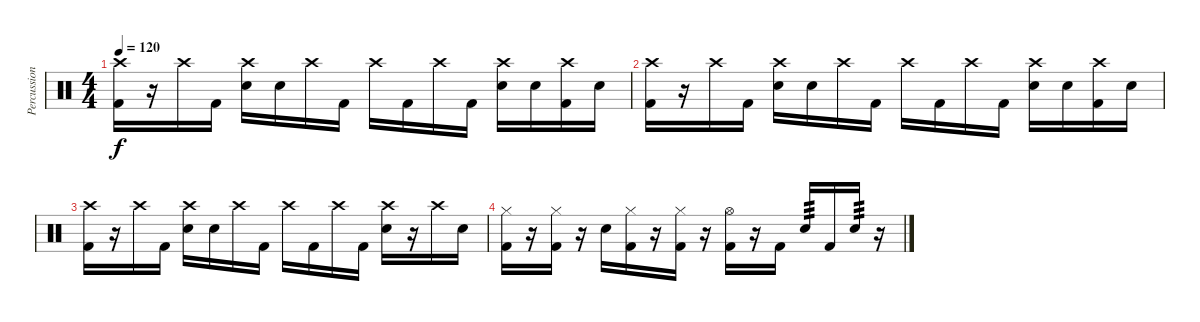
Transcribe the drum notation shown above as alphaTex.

\track ("Percussion" "Percussion") {instrument percussion}
\staff {score}
\articulation defaults
\ts (4 4)
\tempo 120
\clef neutral
\ks c
("Crash high (hit)" "Kick (hit) 2").16{dy f} r.16 "Crash high (hit)".16 "Kick (hit) 2".16 ("Crash high (hit)" "Electric Snare (hit)").16 "Electric Snare (hit)".16 "Crash high (hit)".16 "Kick (hit) 2".16 "Crash high (hit)".16 "Kick (hit) 2".16 "Crash high (hit)".16 "Kick (hit) 2".16 ("Crash high (hit)" "Electric Snare (hit)").16 "Electric Snare (hit)".16 ("Crash high (hit)" "Kick (hit) 2").16 "Electric Snare (hit)".16 |
("Crash high (hit)" "Kick (hit) 2").16 r.16 "Crash high (hit)".16 "Kick (hit) 2".16 ("Crash high (hit)" "Electric Snare (hit)").16 "Electric Snare (hit)".16 "Crash high (hit)".16 "Kick (hit) 2".16 "Crash high (hit)".16 "Kick (hit) 2".16 "Crash high (hit)".16 "Kick (hit) 2".16 ("Crash high (hit)" "Electric Snare (hit)").16 "Electric Snare (hit)".16 ("Crash high (hit)" "Kick (hit) 2").16 "Electric Snare (hit)".16 |
("Crash high (hit)" "Kick (hit) 2").16 r.16 "Crash high (hit)".16 "Kick (hit) 2".16 ("Crash high (hit)" "Electric Snare (hit)").16 "Electric Snare (hit)".16 "Crash high (hit)".16 "Kick (hit) 2".16 "Crash high (hit)".16 "Kick (hit) 2".16 "Crash high (hit)".16 "Kick (hit) 2".16 ("Crash high (hit)" "Electric Snare (hit)").16 r.16 "Crash high (hit)".16 "Electric Snare (hit)".16 |
("Hi-Hat (closed)" "Kick (hit) 2").16 r.16 ("Hi-Hat (closed)" "Kick (hit) 2").16 r.16 "Electric Snare (hit)".16 ("Hi-Hat (closed)" "Kick (hit) 2").16 r.16 ("Hi-Hat (closed)" "Kick (hit) 2").16 r.16 ("Hi-Hat (open)" "Kick (hit) 2").16 r.16 "Kick (hit) 2".16 "Electric Snare (hit)".16{tp 3} "Kick (hit) 2".16 "Electric Snare (hit)".16{tp 3} r.16
